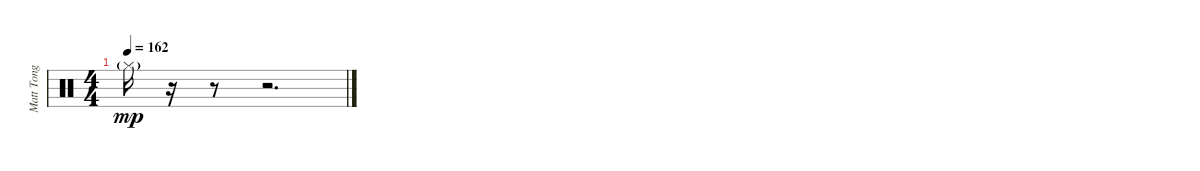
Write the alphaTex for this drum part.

\track ("Matt Tong" "Matt Tong") {instrument percussion}
\staff {score}
\articulation defaults
\ts (4 4)
\tempo 162
\clef neutral
\ks c "Hi-Hat (closed)"{g}.16{dy mp}
r.16 r.8 r.2{d}
